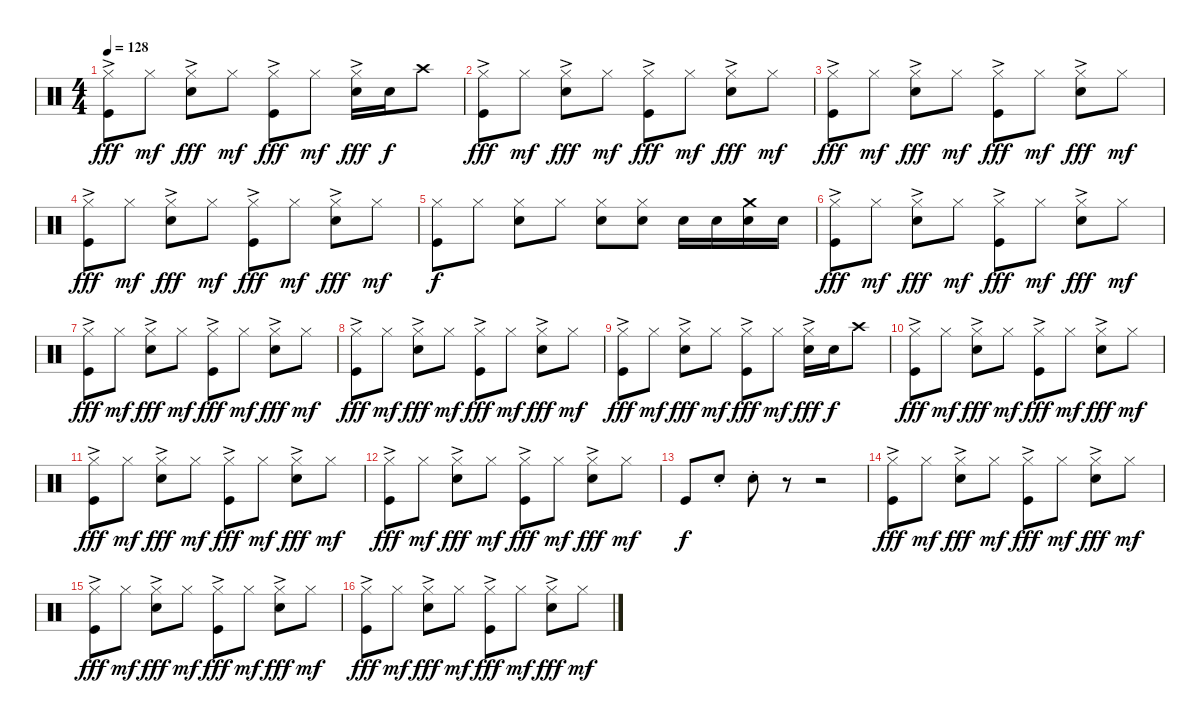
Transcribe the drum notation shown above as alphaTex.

\track "" {instrument percussion}
\staff {score}
\articulation defaults
\ts (4 4)
\tempo 128
\clef neutral
\ks c
("Hi-Hat (closed)"{ac} "Kick (hit)").8{dy fff} "Hi-Hat (closed)".8{dy mf} ("Hi-Hat (closed)"{ac} "Electric Snare (hit)").8{dy fff} "Hi-Hat (closed)".8{dy mf} ("Hi-Hat (closed)"{ac} "Kick (hit)").8{dy fff} "Hi-Hat (closed)".8{dy mf} ("Hi-Hat (closed)"{ac} "Electric Snare (hit)").16{dy fff} "Electric Snare (hit)".16{dy f} "Crash high (hit)".8 |
("Hi-Hat (closed)"{ac} "Kick (hit)").8{dy fff} "Hi-Hat (closed)".8{dy mf} ("Hi-Hat (closed)"{ac} "Electric Snare (hit)").8{dy fff} "Hi-Hat (closed)".8{dy mf} ("Hi-Hat (closed)"{ac} "Kick (hit)").8{dy fff} "Hi-Hat (closed)".8{dy mf} ("Hi-Hat (closed)"{ac} "Electric Snare (hit)").8{dy fff} "Hi-Hat (closed)".8{dy mf} |
("Hi-Hat (closed)"{ac} "Kick (hit)").8{dy fff} "Hi-Hat (closed)".8{dy mf} ("Hi-Hat (closed)"{ac} "Electric Snare (hit)").8{dy fff} "Hi-Hat (closed)".8{dy mf} ("Hi-Hat (closed)"{ac} "Kick (hit)").8{dy fff} "Hi-Hat (closed)".8{dy mf} ("Hi-Hat (closed)"{ac} "Electric Snare (hit)").8{dy fff} "Hi-Hat (closed)".8{dy mf} |
("Hi-Hat (closed)"{ac} "Kick (hit)").8{dy fff} "Hi-Hat (closed)".8{dy mf} ("Hi-Hat (closed)"{ac} "Electric Snare (hit)").8{dy fff} "Hi-Hat (closed)".8{dy mf} ("Hi-Hat (closed)"{ac} "Kick (hit)").8{dy fff} "Hi-Hat (closed)".8{dy mf} ("Hi-Hat (closed)"{ac} "Electric Snare (hit)").8{dy fff} "Hi-Hat (closed)".8{dy mf} |
("Hi-Hat (closed)" "Kick (hit)").8{dy f} "Hi-Hat (closed)".8 ("Hi-Hat (closed)" "Electric Snare (hit)").8 "Hi-Hat (closed)".8 ("Hi-Hat (closed)" "Electric Snare (hit)").8 ("Hi-Hat (closed)" "Electric Snare (hit)").8 "Electric Snare (hit)".16 "Electric Snare (hit)".16 ("Crash medium (hit)" "Electric Snare (hit)").16 "Electric Snare (hit)".16 |
("Hi-Hat (closed)"{ac} "Kick (hit)").8{dy fff} "Hi-Hat (closed)".8{dy mf} ("Hi-Hat (closed)"{ac} "Electric Snare (hit)").8{dy fff} "Hi-Hat (closed)".8{dy mf} ("Hi-Hat (closed)"{ac} "Kick (hit)").8{dy fff} "Hi-Hat (closed)".8{dy mf} ("Hi-Hat (closed)"{ac} "Electric Snare (hit)").8{dy fff} "Hi-Hat (closed)".8{dy mf} |
("Hi-Hat (closed)"{ac} "Kick (hit)").8{dy fff} "Hi-Hat (closed)".8{dy mf} ("Hi-Hat (closed)"{ac} "Electric Snare (hit)").8{dy fff} "Hi-Hat (closed)".8{dy mf} ("Hi-Hat (closed)"{ac} "Kick (hit)").8{dy fff} "Hi-Hat (closed)".8{dy mf} ("Hi-Hat (closed)"{ac} "Electric Snare (hit)").8{dy fff} "Hi-Hat (closed)".8{dy mf} |
("Hi-Hat (closed)"{ac} "Kick (hit)").8{dy fff} "Hi-Hat (closed)".8{dy mf} ("Hi-Hat (closed)"{ac} "Electric Snare (hit)").8{dy fff} "Hi-Hat (closed)".8{dy mf} ("Hi-Hat (closed)"{ac} "Kick (hit)").8{dy fff} "Hi-Hat (closed)".8{dy mf} ("Hi-Hat (closed)"{ac} "Electric Snare (hit)").8{dy fff} "Hi-Hat (closed)".8{dy mf} |
("Hi-Hat (closed)"{ac} "Kick (hit)").8{dy fff} "Hi-Hat (closed)".8{dy mf} ("Hi-Hat (closed)"{ac} "Electric Snare (hit)").8{dy fff} "Hi-Hat (closed)".8{dy mf} ("Hi-Hat (closed)"{ac} "Kick (hit)").8{dy fff} "Hi-Hat (closed)".8{dy mf} ("Hi-Hat (closed)"{ac} "Electric Snare (hit)").16{dy fff} "Electric Snare (hit)".16{dy f} "Crash high (hit)".8 |
("Hi-Hat (closed)"{ac} "Kick (hit)").8{dy fff} "Hi-Hat (closed)".8{dy mf} ("Hi-Hat (closed)"{ac} "Electric Snare (hit)").8{dy fff} "Hi-Hat (closed)".8{dy mf} ("Hi-Hat (closed)"{ac} "Kick (hit)").8{dy fff} "Hi-Hat (closed)".8{dy mf} ("Hi-Hat (closed)"{ac} "Electric Snare (hit)").8{dy fff} "Hi-Hat (closed)".8{dy mf} |
("Hi-Hat (closed)"{ac} "Kick (hit)").8{dy fff} "Hi-Hat (closed)".8{dy mf} ("Hi-Hat (closed)"{ac} "Electric Snare (hit)").8{dy fff} "Hi-Hat (closed)".8{dy mf} ("Hi-Hat (closed)"{ac} "Kick (hit)").8{dy fff} "Hi-Hat (closed)".8{dy mf} ("Hi-Hat (closed)"{ac} "Electric Snare (hit)").8{dy fff} "Hi-Hat (closed)".8{dy mf} |
("Hi-Hat (closed)"{ac} "Kick (hit)").8{dy fff} "Hi-Hat (closed)".8{dy mf} ("Hi-Hat (closed)"{ac} "Electric Snare (hit)").8{dy fff} "Hi-Hat (closed)".8{dy mf} ("Hi-Hat (closed)"{ac} "Kick (hit)").8{dy fff} "Hi-Hat (closed)".8{dy mf} ("Hi-Hat (closed)"{ac} "Electric Snare (hit)").8{dy fff} "Hi-Hat (closed)".8{dy mf} |
"Kick (hit)".8{dy f} "Electric Snare (hit)"{st}.8 "Electric Snare (hit)"{st}.8 r.8 r.2 |
("Hi-Hat (closed)"{ac} "Kick (hit)").8{dy fff} "Hi-Hat (closed)".8{dy mf} ("Hi-Hat (closed)"{ac} "Electric Snare (hit)").8{dy fff} "Hi-Hat (closed)".8{dy mf} ("Hi-Hat (closed)"{ac} "Kick (hit)").8{dy fff} "Hi-Hat (closed)".8{dy mf} ("Hi-Hat (closed)"{ac} "Electric Snare (hit)").8{dy fff} "Hi-Hat (closed)".8{dy mf} |
("Hi-Hat (closed)"{ac} "Kick (hit)").8{dy fff} "Hi-Hat (closed)".8{dy mf} ("Hi-Hat (closed)"{ac} "Electric Snare (hit)").8{dy fff} "Hi-Hat (closed)".8{dy mf} ("Hi-Hat (closed)"{ac} "Kick (hit)").8{dy fff} "Hi-Hat (closed)".8{dy mf} ("Hi-Hat (closed)"{ac} "Electric Snare (hit)").8{dy fff} "Hi-Hat (closed)".8{dy mf} |
("Hi-Hat (closed)"{ac} "Kick (hit)").8{dy fff} "Hi-Hat (closed)".8{dy mf} ("Hi-Hat (closed)"{ac} "Electric Snare (hit)").8{dy fff} "Hi-Hat (closed)".8{dy mf} ("Hi-Hat (closed)"{ac} "Kick (hit)").8{dy fff} "Hi-Hat (closed)".8{dy mf} ("Hi-Hat (closed)"{ac} "Electric Snare (hit)").8{dy fff} "Hi-Hat (closed)".8{dy mf}
